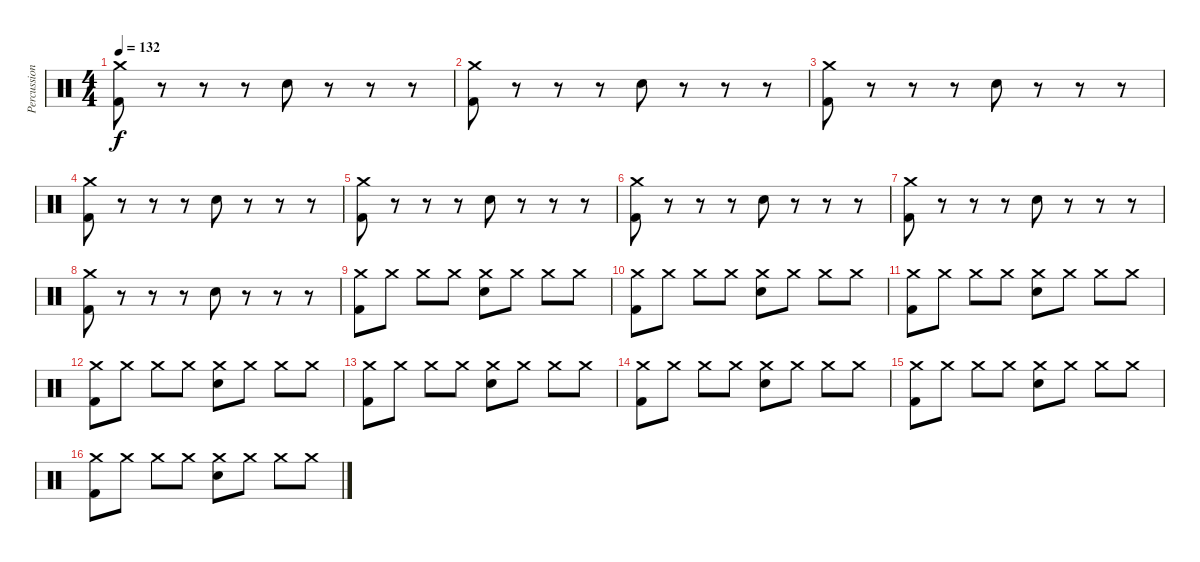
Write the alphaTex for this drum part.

\track ("Percussion" "Percussion") {instrument percussion}
\staff {score}
\articulation defaults
\ts (4 4)
\tempo 132
\clef neutral
\ks c
("Crash medium (hit)" "Kick (hit) 2").8{dy f} r.8 r.8 r.8 "Electric Snare (hit)".8 r.8 r.8 r.8 |
("Crash medium (hit)" "Kick (hit) 2").8 r.8 r.8 r.8 "Electric Snare (hit)".8 r.8 r.8 r.8 |
("Crash medium (hit)" "Kick (hit) 2").8 r.8 r.8 r.8 "Electric Snare (hit)".8 r.8 r.8 r.8 |
("Crash medium (hit)" "Kick (hit) 2").8 r.8 r.8 r.8 "Electric Snare (hit)".8 r.8 r.8 r.8 |
("Crash medium (hit)" "Kick (hit) 2").8 r.8 r.8 r.8 "Electric Snare (hit)".8 r.8 r.8 r.8 |
("Crash medium (hit)" "Kick (hit) 2").8 r.8 r.8 r.8 "Electric Snare (hit)".8 r.8 r.8 r.8 |
("Crash medium (hit)" "Kick (hit) 2").8 r.8 r.8 r.8 "Electric Snare (hit)".8 r.8 r.8 r.8 |
("Crash medium (hit)" "Kick (hit) 2").8 r.8 r.8 r.8 "Electric Snare (hit)".8 r.8 r.8 r.8 |
("Crash medium (hit)" "Kick (hit) 2").8 "Crash medium (hit)".8 "Crash medium (hit)".8 "Crash medium (hit)".8 ("Crash medium (hit)" "Electric Snare (hit)").8 "Crash medium (hit)".8 "Crash medium (hit)".8 "Crash medium (hit)".8 |
("Crash medium (hit)" "Kick (hit) 2").8 "Crash medium (hit)".8 "Crash medium (hit)".8 "Crash medium (hit)".8 ("Crash medium (hit)" "Electric Snare (hit)").8 "Crash medium (hit)".8 "Crash medium (hit)".8 "Crash medium (hit)".8 |
("Crash medium (hit)" "Kick (hit) 2").8 "Crash medium (hit)".8 "Crash medium (hit)".8 "Crash medium (hit)".8 ("Crash medium (hit)" "Electric Snare (hit)").8 "Crash medium (hit)".8 "Crash medium (hit)".8 "Crash medium (hit)".8 |
("Crash medium (hit)" "Kick (hit) 2").8 "Crash medium (hit)".8 "Crash medium (hit)".8 "Crash medium (hit)".8 ("Crash medium (hit)" "Electric Snare (hit)").8 "Crash medium (hit)".8 "Crash medium (hit)".8 "Crash medium (hit)".8 |
("Crash medium (hit)" "Kick (hit) 2").8 "Crash medium (hit)".8 "Crash medium (hit)".8 "Crash medium (hit)".8 ("Crash medium (hit)" "Electric Snare (hit)").8 "Crash medium (hit)".8 "Crash medium (hit)".8 "Crash medium (hit)".8 |
("Crash medium (hit)" "Kick (hit) 2").8 "Crash medium (hit)".8 "Crash medium (hit)".8 "Crash medium (hit)".8 ("Crash medium (hit)" "Electric Snare (hit)").8 "Crash medium (hit)".8 "Crash medium (hit)".8 "Crash medium (hit)".8 |
("Crash medium (hit)" "Kick (hit) 2").8 "Crash medium (hit)".8 "Crash medium (hit)".8 "Crash medium (hit)".8 ("Crash medium (hit)" "Electric Snare (hit)").8 "Crash medium (hit)".8 "Crash medium (hit)".8 "Crash medium (hit)".8 |
("Crash medium (hit)" "Kick (hit) 2").8 "Crash medium (hit)".8 "Crash medium (hit)".8 "Crash medium (hit)".8 ("Crash medium (hit)" "Electric Snare (hit)").8 "Crash medium (hit)".8 "Crash medium (hit)".8 "Crash medium (hit)".8
